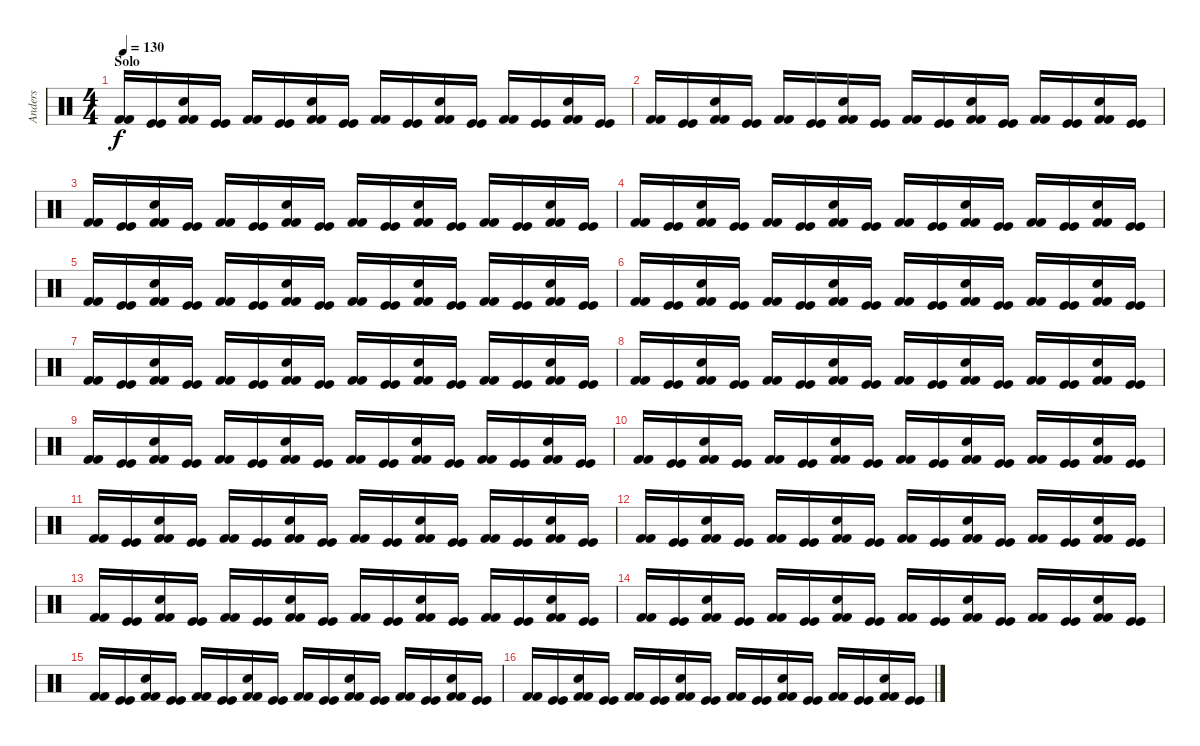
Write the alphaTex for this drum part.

\track ("Anders" "Anders") {instrument percussion}
\staff {score}
\articulation defaults
\ts (4 4)
\section ("" "Solo")
\tempo 130
\clef neutral
\ks c
("Kick (hit) 2" "Kick (hit) 2").16{dy f} ("Kick (hit)" "Kick (hit)").16 ("Snare (hit) 2" "Kick (hit) 2" "Kick (hit) 2").16 ("Kick (hit)" "Kick (hit)").16 ("Kick (hit) 2" "Kick (hit) 2").16 ("Kick (hit)" "Kick (hit)").16 ("Snare (hit) 2" "Kick (hit) 2" "Kick (hit) 2").16 ("Kick (hit)" "Kick (hit)").16 ("Kick (hit) 2" "Kick (hit) 2").16 ("Kick (hit)" "Kick (hit)").16 ("Snare (hit) 2" "Kick (hit) 2" "Kick (hit) 2").16 ("Kick (hit)" "Kick (hit)").16 ("Kick (hit) 2" "Kick (hit) 2").16 ("Kick (hit)" "Kick (hit)").16 ("Snare (hit) 2" "Kick (hit) 2" "Kick (hit) 2").16 ("Kick (hit)" "Kick (hit)").16 |
("Kick (hit) 2" "Kick (hit) 2").16 ("Kick (hit)" "Kick (hit)").16 ("Snare (hit) 2" "Kick (hit) 2" "Kick (hit) 2").16 ("Kick (hit)" "Kick (hit)").16 ("Kick (hit) 2" "Kick (hit) 2").16 ("Kick (hit)" "Kick (hit)").16 ("Snare (hit) 2" "Kick (hit) 2" "Kick (hit) 2").16 ("Kick (hit)" "Kick (hit)").16 ("Kick (hit) 2" "Kick (hit) 2").16 ("Kick (hit)" "Kick (hit)").16 ("Snare (hit) 2" "Kick (hit) 2" "Kick (hit) 2").16 ("Kick (hit)" "Kick (hit)").16 ("Kick (hit) 2" "Kick (hit) 2").16 ("Kick (hit)" "Kick (hit)").16 ("Snare (hit) 2" "Kick (hit) 2" "Kick (hit) 2").16 ("Kick (hit)" "Kick (hit)").16 |
("Kick (hit) 2" "Kick (hit) 2").16 ("Kick (hit)" "Kick (hit)").16 ("Snare (hit) 2" "Kick (hit) 2" "Kick (hit) 2").16 ("Kick (hit)" "Kick (hit)").16 ("Kick (hit) 2" "Kick (hit) 2").16 ("Kick (hit)" "Kick (hit)").16 ("Snare (hit) 2" "Kick (hit) 2" "Kick (hit) 2").16 ("Kick (hit)" "Kick (hit)").16 ("Kick (hit) 2" "Kick (hit) 2").16 ("Kick (hit)" "Kick (hit)").16 ("Snare (hit) 2" "Kick (hit) 2" "Kick (hit) 2").16 ("Kick (hit)" "Kick (hit)").16 ("Kick (hit) 2" "Kick (hit) 2").16 ("Kick (hit)" "Kick (hit)").16 ("Snare (hit) 2" "Kick (hit) 2" "Kick (hit) 2").16 ("Kick (hit)" "Kick (hit)").16 |
("Kick (hit) 2" "Kick (hit) 2").16 ("Kick (hit)" "Kick (hit)").16 ("Snare (hit) 2" "Kick (hit) 2" "Kick (hit) 2").16 ("Kick (hit)" "Kick (hit)").16 ("Kick (hit) 2" "Kick (hit) 2").16 ("Kick (hit)" "Kick (hit)").16 ("Snare (hit) 2" "Kick (hit) 2" "Kick (hit) 2").16 ("Kick (hit)" "Kick (hit)").16 ("Kick (hit) 2" "Kick (hit) 2").16 ("Kick (hit)" "Kick (hit)").16 ("Snare (hit) 2" "Kick (hit) 2" "Kick (hit) 2").16 ("Kick (hit)" "Kick (hit)").16 ("Kick (hit) 2" "Kick (hit) 2").16 ("Kick (hit)" "Kick (hit)").16 ("Snare (hit) 2" "Kick (hit) 2" "Kick (hit) 2").16 ("Kick (hit)" "Kick (hit)").16 |
("Kick (hit) 2" "Kick (hit) 2").16 ("Kick (hit)" "Kick (hit)").16 ("Snare (hit) 2" "Kick (hit) 2" "Kick (hit) 2").16 ("Kick (hit)" "Kick (hit)").16 ("Kick (hit) 2" "Kick (hit) 2").16 ("Kick (hit)" "Kick (hit)").16 ("Snare (hit) 2" "Kick (hit) 2" "Kick (hit) 2").16 ("Kick (hit)" "Kick (hit)").16 ("Kick (hit) 2" "Kick (hit) 2").16 ("Kick (hit)" "Kick (hit)").16 ("Snare (hit) 2" "Kick (hit) 2" "Kick (hit) 2").16 ("Kick (hit)" "Kick (hit)").16 ("Kick (hit) 2" "Kick (hit) 2").16 ("Kick (hit)" "Kick (hit)").16 ("Snare (hit) 2" "Kick (hit) 2" "Kick (hit) 2").16 ("Kick (hit)" "Kick (hit)").16 |
("Kick (hit) 2" "Kick (hit) 2").16 ("Kick (hit)" "Kick (hit)").16 ("Snare (hit) 2" "Kick (hit) 2" "Kick (hit) 2").16 ("Kick (hit)" "Kick (hit)").16 ("Kick (hit) 2" "Kick (hit) 2").16 ("Kick (hit)" "Kick (hit)").16 ("Snare (hit) 2" "Kick (hit) 2" "Kick (hit) 2").16 ("Kick (hit)" "Kick (hit)").16 ("Kick (hit) 2" "Kick (hit) 2").16 ("Kick (hit)" "Kick (hit)").16 ("Snare (hit) 2" "Kick (hit) 2" "Kick (hit) 2").16 ("Kick (hit)" "Kick (hit)").16 ("Kick (hit) 2" "Kick (hit) 2").16 ("Kick (hit)" "Kick (hit)").16 ("Snare (hit) 2" "Kick (hit) 2" "Kick (hit) 2").16 ("Kick (hit)" "Kick (hit)").16 |
("Kick (hit) 2" "Kick (hit) 2").16 ("Kick (hit)" "Kick (hit)").16 ("Snare (hit) 2" "Kick (hit) 2" "Kick (hit) 2").16 ("Kick (hit)" "Kick (hit)").16 ("Kick (hit) 2" "Kick (hit) 2").16 ("Kick (hit)" "Kick (hit)").16 ("Snare (hit) 2" "Kick (hit) 2" "Kick (hit) 2").16 ("Kick (hit)" "Kick (hit)").16 ("Kick (hit) 2" "Kick (hit) 2").16 ("Kick (hit)" "Kick (hit)").16 ("Snare (hit) 2" "Kick (hit) 2" "Kick (hit) 2").16 ("Kick (hit)" "Kick (hit)").16 ("Kick (hit) 2" "Kick (hit) 2").16 ("Kick (hit)" "Kick (hit)").16 ("Snare (hit) 2" "Kick (hit) 2" "Kick (hit) 2").16 ("Kick (hit)" "Kick (hit)").16 |
("Kick (hit) 2" "Kick (hit) 2").16 ("Kick (hit)" "Kick (hit)").16 ("Snare (hit) 2" "Kick (hit) 2" "Kick (hit) 2").16 ("Kick (hit)" "Kick (hit)").16 ("Kick (hit) 2" "Kick (hit) 2").16 ("Kick (hit)" "Kick (hit)").16 ("Snare (hit) 2" "Kick (hit) 2" "Kick (hit) 2").16 ("Kick (hit)" "Kick (hit)").16 ("Kick (hit) 2" "Kick (hit) 2").16 ("Kick (hit)" "Kick (hit)").16 ("Snare (hit) 2" "Kick (hit) 2" "Kick (hit) 2").16 ("Kick (hit)" "Kick (hit)").16 ("Kick (hit) 2" "Kick (hit) 2").16 ("Kick (hit)" "Kick (hit)").16 ("Snare (hit) 2" "Kick (hit) 2" "Kick (hit) 2").16 ("Kick (hit)" "Kick (hit)").16 |
("Kick (hit) 2" "Kick (hit) 2").16 ("Kick (hit)" "Kick (hit)").16 ("Snare (hit) 2" "Kick (hit) 2" "Kick (hit) 2").16 ("Kick (hit)" "Kick (hit)").16 ("Kick (hit) 2" "Kick (hit) 2").16 ("Kick (hit)" "Kick (hit)").16 ("Snare (hit) 2" "Kick (hit) 2" "Kick (hit) 2").16 ("Kick (hit)" "Kick (hit)").16 ("Kick (hit) 2" "Kick (hit) 2").16 ("Kick (hit)" "Kick (hit)").16 ("Snare (hit) 2" "Kick (hit) 2" "Kick (hit) 2").16 ("Kick (hit)" "Kick (hit)").16 ("Kick (hit) 2" "Kick (hit) 2").16 ("Kick (hit)" "Kick (hit)").16 ("Snare (hit) 2" "Kick (hit) 2" "Kick (hit) 2").16 ("Kick (hit)" "Kick (hit)").16 |
("Kick (hit) 2" "Kick (hit) 2").16 ("Kick (hit)" "Kick (hit)").16 ("Snare (hit) 2" "Kick (hit) 2" "Kick (hit) 2").16 ("Kick (hit)" "Kick (hit)").16 ("Kick (hit) 2" "Kick (hit) 2").16 ("Kick (hit)" "Kick (hit)").16 ("Snare (hit) 2" "Kick (hit) 2" "Kick (hit) 2").16 ("Kick (hit)" "Kick (hit)").16 ("Kick (hit) 2" "Kick (hit) 2").16 ("Kick (hit)" "Kick (hit)").16 ("Snare (hit) 2" "Kick (hit) 2" "Kick (hit) 2").16 ("Kick (hit)" "Kick (hit)").16 ("Kick (hit) 2" "Kick (hit) 2").16 ("Kick (hit)" "Kick (hit)").16 ("Snare (hit) 2" "Kick (hit) 2" "Kick (hit) 2").16 ("Kick (hit)" "Kick (hit)").16 |
("Kick (hit) 2" "Kick (hit) 2").16 ("Kick (hit)" "Kick (hit)").16 ("Snare (hit) 2" "Kick (hit) 2" "Kick (hit) 2").16 ("Kick (hit)" "Kick (hit)").16 ("Kick (hit) 2" "Kick (hit) 2").16 ("Kick (hit)" "Kick (hit)").16 ("Snare (hit) 2" "Kick (hit) 2" "Kick (hit) 2").16 ("Kick (hit)" "Kick (hit)").16 ("Kick (hit) 2" "Kick (hit) 2").16 ("Kick (hit)" "Kick (hit)").16 ("Snare (hit) 2" "Kick (hit) 2" "Kick (hit) 2").16 ("Kick (hit)" "Kick (hit)").16 ("Kick (hit) 2" "Kick (hit) 2").16 ("Kick (hit)" "Kick (hit)").16 ("Snare (hit) 2" "Kick (hit) 2" "Kick (hit) 2").16 ("Kick (hit)" "Kick (hit)").16 |
("Kick (hit) 2" "Kick (hit) 2").16 ("Kick (hit)" "Kick (hit)").16 ("Snare (hit) 2" "Kick (hit) 2" "Kick (hit) 2").16 ("Kick (hit)" "Kick (hit)").16 ("Kick (hit) 2" "Kick (hit) 2").16 ("Kick (hit)" "Kick (hit)").16 ("Snare (hit) 2" "Kick (hit) 2" "Kick (hit) 2").16 ("Kick (hit)" "Kick (hit)").16 ("Kick (hit) 2" "Kick (hit) 2").16 ("Kick (hit)" "Kick (hit)").16 ("Snare (hit) 2" "Kick (hit) 2" "Kick (hit) 2").16 ("Kick (hit)" "Kick (hit)").16 ("Kick (hit) 2" "Kick (hit) 2").16 ("Kick (hit)" "Kick (hit)").16 ("Snare (hit) 2" "Kick (hit) 2" "Kick (hit) 2").16 ("Kick (hit)" "Kick (hit)").16 |
("Kick (hit) 2" "Kick (hit) 2").16 ("Kick (hit)" "Kick (hit)").16 ("Snare (hit) 2" "Kick (hit) 2" "Kick (hit) 2").16 ("Kick (hit)" "Kick (hit)").16 ("Kick (hit) 2" "Kick (hit) 2").16 ("Kick (hit)" "Kick (hit)").16 ("Snare (hit) 2" "Kick (hit) 2" "Kick (hit) 2").16 ("Kick (hit)" "Kick (hit)").16 ("Kick (hit) 2" "Kick (hit) 2").16 ("Kick (hit)" "Kick (hit)").16 ("Snare (hit) 2" "Kick (hit) 2" "Kick (hit) 2").16 ("Kick (hit)" "Kick (hit)").16 ("Kick (hit) 2" "Kick (hit) 2").16 ("Kick (hit)" "Kick (hit)").16 ("Snare (hit) 2" "Kick (hit) 2" "Kick (hit) 2").16 ("Kick (hit)" "Kick (hit)").16 |
("Kick (hit) 2" "Kick (hit) 2").16 ("Kick (hit)" "Kick (hit)").16 ("Snare (hit) 2" "Kick (hit) 2" "Kick (hit) 2").16 ("Kick (hit)" "Kick (hit)").16 ("Kick (hit) 2" "Kick (hit) 2").16 ("Kick (hit)" "Kick (hit)").16 ("Snare (hit) 2" "Kick (hit) 2" "Kick (hit) 2").16 ("Kick (hit)" "Kick (hit)").16 ("Kick (hit) 2" "Kick (hit) 2").16 ("Kick (hit)" "Kick (hit)").16 ("Snare (hit) 2" "Kick (hit) 2" "Kick (hit) 2").16 ("Kick (hit)" "Kick (hit)").16 ("Kick (hit) 2" "Kick (hit) 2").16 ("Kick (hit)" "Kick (hit)").16 ("Snare (hit) 2" "Kick (hit) 2" "Kick (hit) 2").16 ("Kick (hit)" "Kick (hit)").16 |
("Kick (hit) 2" "Kick (hit) 2").16 ("Kick (hit)" "Kick (hit)").16 ("Snare (hit) 2" "Kick (hit) 2" "Kick (hit) 2").16 ("Kick (hit)" "Kick (hit)").16 ("Kick (hit) 2" "Kick (hit) 2").16 ("Kick (hit)" "Kick (hit)").16 ("Snare (hit) 2" "Kick (hit) 2" "Kick (hit) 2").16 ("Kick (hit)" "Kick (hit)").16 ("Kick (hit) 2" "Kick (hit) 2").16 ("Kick (hit)" "Kick (hit)").16 ("Snare (hit) 2" "Kick (hit) 2" "Kick (hit) 2").16 ("Kick (hit)" "Kick (hit)").16 ("Kick (hit) 2" "Kick (hit) 2").16 ("Kick (hit)" "Kick (hit)").16 ("Snare (hit) 2" "Kick (hit) 2" "Kick (hit) 2").16 ("Kick (hit)" "Kick (hit)").16 |
("Kick (hit) 2" "Kick (hit) 2").16 ("Kick (hit)" "Kick (hit)").16 ("Snare (hit) 2" "Kick (hit) 2" "Kick (hit) 2").16 ("Kick (hit)" "Kick (hit)").16 ("Kick (hit) 2" "Kick (hit) 2").16 ("Kick (hit)" "Kick (hit)").16 ("Snare (hit) 2" "Kick (hit) 2" "Kick (hit) 2").16 ("Kick (hit)" "Kick (hit)").16 ("Kick (hit) 2" "Kick (hit) 2").16 ("Kick (hit)" "Kick (hit)").16 ("Snare (hit) 2" "Kick (hit) 2" "Kick (hit) 2").16 ("Kick (hit)" "Kick (hit)").16 ("Kick (hit) 2" "Kick (hit) 2").16 ("Kick (hit)" "Kick (hit)").16 ("Snare (hit) 2" "Kick (hit) 2" "Kick (hit) 2").16 ("Kick (hit)" "Kick (hit)").16
